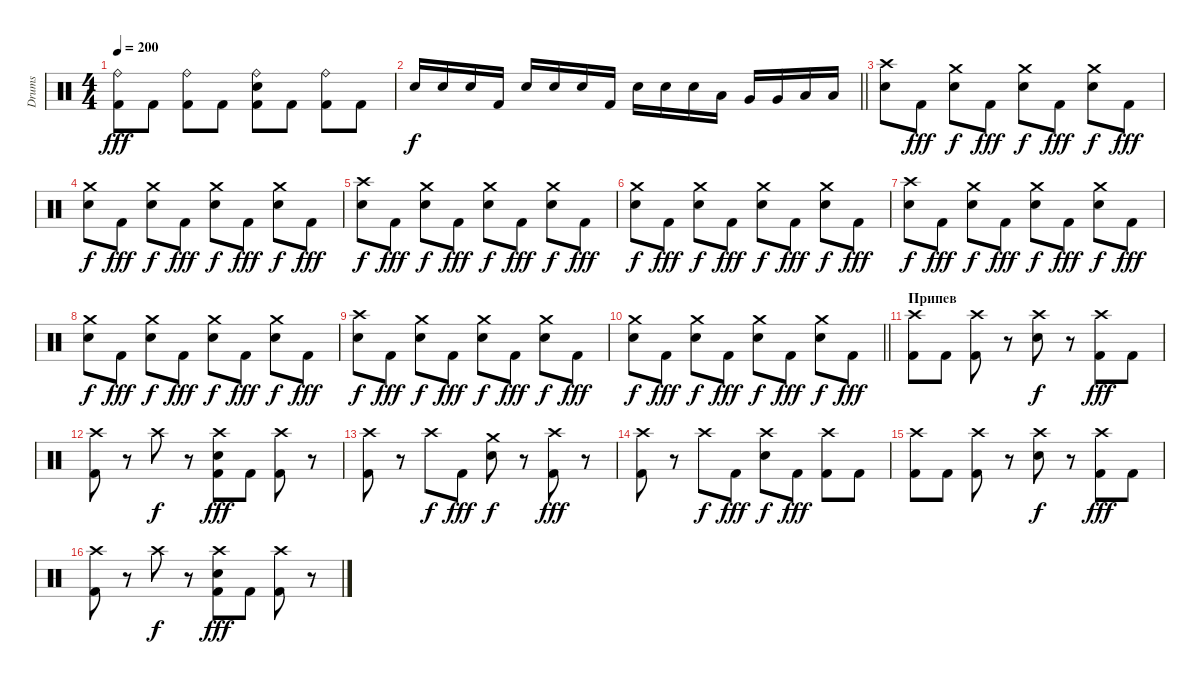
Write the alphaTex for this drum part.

\track ("Drums" "Drums") {instrument percussion}
\staff {score}
\articulation defaults
\ts (4 4)
\tempo 200
\clef neutral
\ks c
("Ride (bell)" "Kick (hit) 2").8{dy fff} "Kick (hit) 2".8 ("Ride (bell)" "Kick (hit) 2").8 "Kick (hit) 2".8 ("Ride (bell)" "Electric Snare (hit)" "Kick (hit) 2").8 "Kick (hit) 2".8 ("Ride (bell)" "Kick (hit) 2").8 "Kick (hit) 2".8 |
\barLineRight lightlight "Electric Snare (hit)".16{dy f} "Electric Snare (hit)".16 "Electric Snare (hit)".16 "Kick (hit) 2".16 "Electric Snare (hit)".16 "Electric Snare (hit)".16 "Electric Snare (hit)".16 "Kick (hit) 2".16 "Electric Snare (hit)".16 "Electric Snare (hit)".16 "Electric Snare (hit)".16 "Low Tom (hit)".16 "Very Low Tom (hit)".16 "Very Low Tom (hit)".16 "Low Floor Tom (hit)".16 "Low Floor Tom (hit)".16
|
("Crash high (hit)" "Electric Snare (hit)").8 "Kick (hit) 2".8{dy fff} ("Crash medium (hit)" "Electric Snare (hit)").8{dy f} "Kick (hit) 2".8{dy fff} ("Crash medium (hit)" "Electric Snare (hit)").8{dy f} "Kick (hit) 2".8{dy fff} ("Crash medium (hit)" "Electric Snare (hit)").8{dy f} "Kick (hit) 2".8{dy fff} |
("Crash medium (hit)" "Electric Snare (hit)").8{dy f} "Kick (hit) 2".8{dy fff} ("Crash medium (hit)" "Electric Snare (hit)").8{dy f} "Kick (hit) 2".8{dy fff} ("Crash medium (hit)" "Electric Snare (hit)").8{dy f} "Kick (hit) 2".8{dy fff} ("Crash medium (hit)" "Electric Snare (hit)").8{dy f} "Kick (hit) 2".8{dy fff} |
("Crash high (hit)" "Electric Snare (hit)").8{dy f} "Kick (hit) 2".8{dy fff} ("Crash medium (hit)" "Electric Snare (hit)").8{dy f} "Kick (hit) 2".8{dy fff} ("Crash medium (hit)" "Electric Snare (hit)").8{dy f} "Kick (hit) 2".8{dy fff} ("Crash medium (hit)" "Electric Snare (hit)").8{dy f} "Kick (hit) 2".8{dy fff} |
("Crash medium (hit)" "Electric Snare (hit)").8{dy f} "Kick (hit) 2".8{dy fff} ("Crash medium (hit)" "Electric Snare (hit)").8{dy f} "Kick (hit) 2".8{dy fff} ("Crash medium (hit)" "Electric Snare (hit)").8{dy f} "Kick (hit) 2".8{dy fff} ("Crash medium (hit)" "Electric Snare (hit)").8{dy f} "Kick (hit) 2".8{dy fff} |
("Crash high (hit)" "Electric Snare (hit)").8{dy f} "Kick (hit) 2".8{dy fff} ("Crash medium (hit)" "Electric Snare (hit)").8{dy f} "Kick (hit) 2".8{dy fff} ("Crash medium (hit)" "Electric Snare (hit)").8{dy f} "Kick (hit) 2".8{dy fff} ("Crash medium (hit)" "Electric Snare (hit)").8{dy f} "Kick (hit) 2".8{dy fff} |
("Crash medium (hit)" "Electric Snare (hit)").8{dy f} "Kick (hit) 2".8{dy fff} ("Crash medium (hit)" "Electric Snare (hit)").8{dy f} "Kick (hit) 2".8{dy fff} ("Crash medium (hit)" "Electric Snare (hit)").8{dy f} "Kick (hit) 2".8{dy fff} ("Crash medium (hit)" "Electric Snare (hit)").8{dy f} "Kick (hit) 2".8{dy fff} |
("Crash high (hit)" "Electric Snare (hit)").8{dy f} "Kick (hit) 2".8{dy fff} ("Crash medium (hit)" "Electric Snare (hit)").8{dy f} "Kick (hit) 2".8{dy fff} ("Crash medium (hit)" "Electric Snare (hit)").8{dy f} "Kick (hit) 2".8{dy fff} ("Crash medium (hit)" "Electric Snare (hit)").8{dy f} "Kick (hit) 2".8{dy fff} |
\barLineRight lightlight
("Crash medium (hit)" "Electric Snare (hit)").8{dy f} "Kick (hit) 2".8{dy fff} ("Crash medium (hit)" "Electric Snare (hit)").8{dy f} "Kick (hit) 2".8{dy fff} ("Crash medium (hit)" "Electric Snare (hit)").8{dy f} "Kick (hit) 2".8{dy fff} ("Crash medium (hit)" "Electric Snare (hit)").8{dy f} "Kick (hit) 2".8{dy fff} |
\section ("" "Припев")
("Crash high (hit)" "Kick (hit) 2").8 "Kick (hit) 2".8 ("Crash high (hit)" "Kick (hit) 2").8 r.8 ("Crash high (hit)" "Electric Snare (hit)").8{dy f} r.8 ("Crash high (hit)" "Kick (hit) 2").8{dy fff} "Kick (hit) 2".8 |
("Crash high (hit)" "Kick (hit) 2").8 r.8 "Crash high (hit)".8{dy f} r.8 ("Crash high (hit)" "Electric Snare (hit)" "Kick (hit) 2").8{dy fff} "Kick (hit) 2".8 ("Crash high (hit)" "Kick (hit) 2").8 r.8 |
("Crash high (hit)" "Kick (hit) 2").8 r.8 "Crash high (hit)".8{dy f} "Kick (hit) 2".8{dy fff} ("Crash medium (hit)" "Electric Snare (hit)").8{dy f} r.8 ("Crash high (hit)" "Kick (hit) 2").8{dy fff} r.8 |
("Crash high (hit)" "Kick (hit) 2").8 r.8 "Crash high (hit)".8{dy f} "Kick (hit) 2".8{dy fff} ("Crash high (hit)" "Electric Snare (hit)").8{dy f} "Kick (hit) 2".8{dy fff} ("Crash high (hit)" "Kick (hit) 2").8 "Kick (hit) 2".8 |
("Crash high (hit)" "Kick (hit) 2").8 "Kick (hit) 2".8 ("Crash high (hit)" "Kick (hit) 2").8 r.8 ("Crash high (hit)" "Electric Snare (hit)").8{dy f} r.8 ("Crash high (hit)" "Kick (hit) 2").8{dy fff} "Kick (hit) 2".8 |
("Crash high (hit)" "Kick (hit) 2").8 r.8 "Crash high (hit)".8{dy f} r.8 ("Crash high (hit)" "Electric Snare (hit)" "Kick (hit) 2").8{dy fff} "Kick (hit) 2".8 ("Crash high (hit)" "Kick (hit) 2").8 r.8
